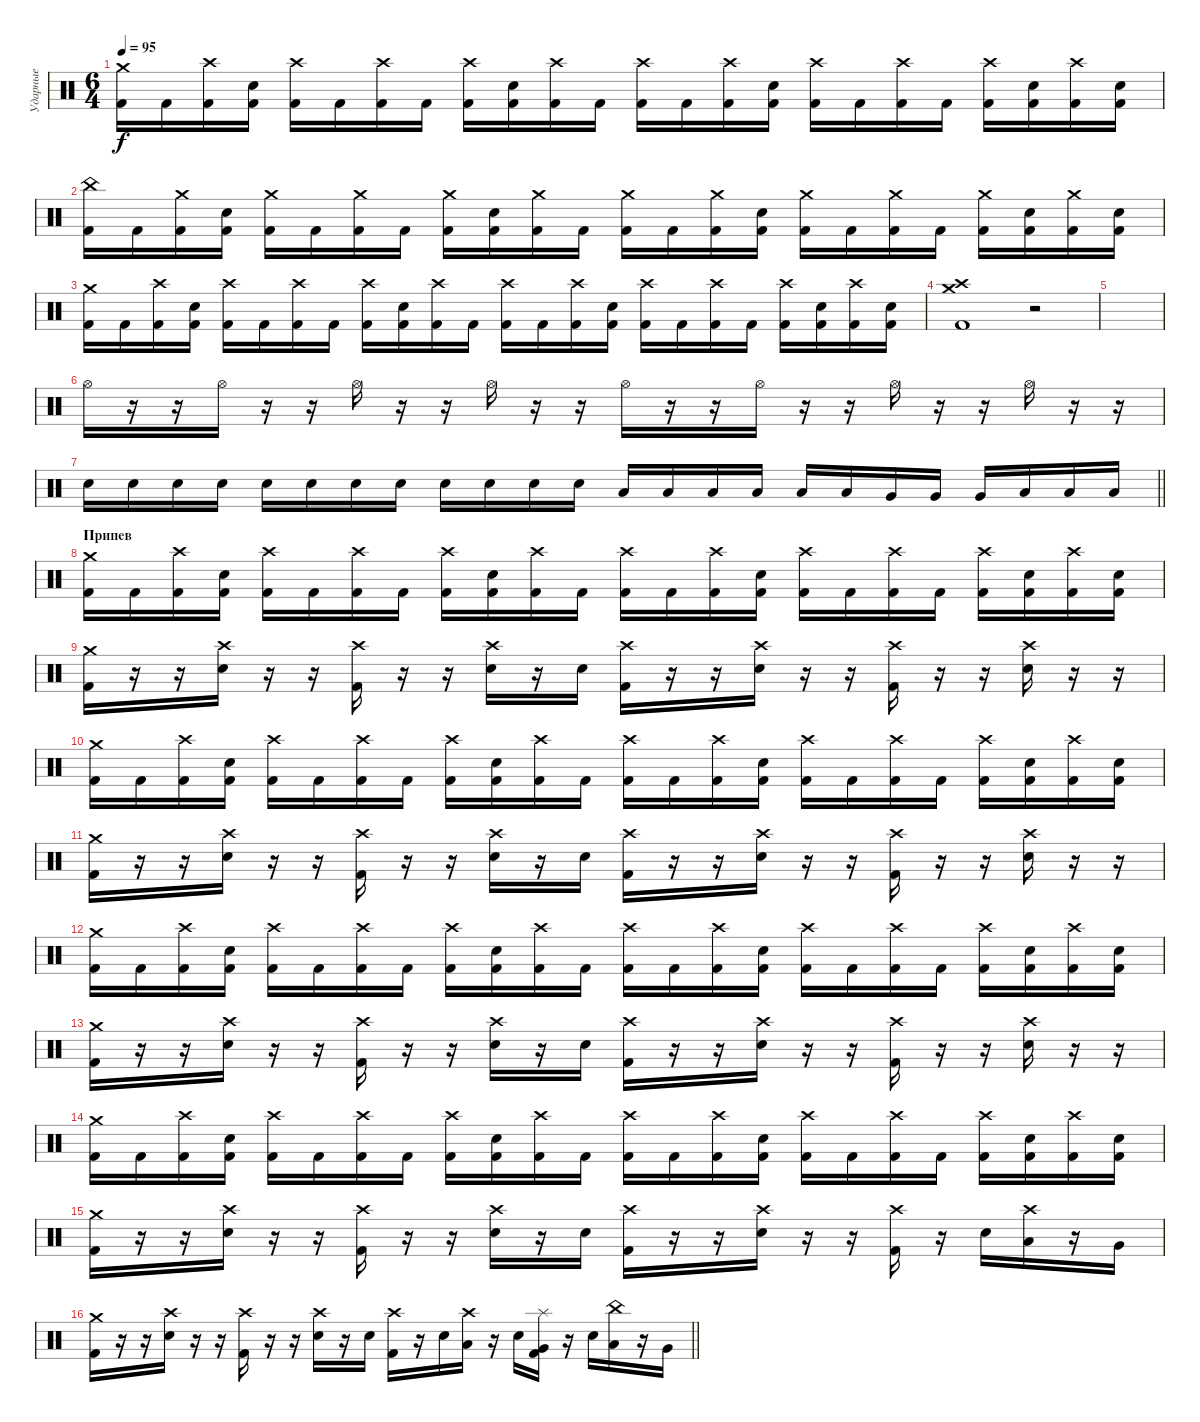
\track ("Ударные" "Ударные") {instrument percussion}
\staff {score}
\articulation defaults
\ts (6 4)
\tempo 95
\clef neutral
\ks c
("Crash medium (hit)" "Kick (hit) 2").16{dy f} "Kick (hit) 2".16 ("Crash high (hit)" "Kick (hit) 2").16 ("Electric Snare (hit)" "Kick (hit) 2").16 ("Crash high (hit)" "Kick (hit) 2").16 "Kick (hit) 2".16 ("Crash high (hit)" "Kick (hit) 2").16 "Kick (hit) 2".16 ("Crash high (hit)" "Kick (hit) 2").16 ("Electric Snare (hit)" "Kick (hit) 2").16 ("Crash high (hit)" "Kick (hit) 2").16 "Kick (hit) 2".16 ("Crash high (hit)" "Kick (hit) 2").16 "Kick (hit) 2".16 ("Crash high (hit)" "Kick (hit) 2").16 ("Electric Snare (hit)" "Kick (hit) 2").16 ("Crash high (hit)" "Kick (hit) 2").16 "Kick (hit) 2".16 ("Crash high (hit)" "Kick (hit) 2").16 "Kick (hit) 2".16 ("Crash high (hit)" "Kick (hit) 2").16 ("Electric Snare (hit)" "Kick (hit) 2").16 ("Crash high (hit)" "Kick (hit) 2").16 ("Electric Snare (hit)" "Kick (hit) 2").16 |
("China (hit)" "Kick (hit) 2").16 "Kick (hit) 2".16 ("Crash medium (hit)" "Kick (hit) 2").16 ("Electric Snare (hit)" "Kick (hit) 2").16 ("Crash medium (hit)" "Kick (hit) 2").16 "Kick (hit) 2".16 ("Crash medium (hit)" "Kick (hit) 2").16 "Kick (hit) 2".16 ("Crash medium (hit)" "Kick (hit) 2").16 ("Electric Snare (hit)" "Kick (hit) 2").16 ("Crash medium (hit)" "Kick (hit) 2").16 "Kick (hit) 2".16 ("Crash medium (hit)" "Kick (hit) 2").16 "Kick (hit) 2".16 ("Crash medium (hit)" "Kick (hit) 2").16 ("Electric Snare (hit)" "Kick (hit) 2").16 ("Crash medium (hit)" "Kick (hit) 2").16 "Kick (hit) 2".16 ("Crash medium (hit)" "Kick (hit) 2").16 "Kick (hit) 2".16 ("Crash medium (hit)" "Kick (hit) 2").16 ("Electric Snare (hit)" "Kick (hit) 2").16 ("Crash medium (hit)" "Kick (hit) 2").16 ("Electric Snare (hit)" "Kick (hit) 2").16 |
("Crash medium (hit)" "Kick (hit) 2").16 "Kick (hit) 2".16 ("Crash high (hit)" "Kick (hit) 2").16 ("Electric Snare (hit)" "Kick (hit) 2").16 ("Crash high (hit)" "Kick (hit) 2").16 "Kick (hit) 2".16 ("Crash high (hit)" "Kick (hit) 2").16 "Kick (hit) 2".16 ("Crash high (hit)" "Kick (hit) 2").16 ("Electric Snare (hit)" "Kick (hit) 2").16 ("Crash high (hit)" "Kick (hit) 2").16 "Kick (hit) 2".16 ("Crash high (hit)" "Kick (hit) 2").16 "Kick (hit) 2".16 ("Crash high (hit)" "Kick (hit) 2").16 ("Electric Snare (hit)" "Kick (hit) 2").16 ("Crash high (hit)" "Kick (hit) 2").16 "Kick (hit) 2".16 ("Crash high (hit)" "Kick (hit) 2").16 "Kick (hit) 2".16 ("Crash high (hit)" "Kick (hit) 2").16 ("Electric Snare (hit)" "Kick (hit) 2").16 ("Crash high (hit)" "Kick (hit) 2").16 ("Electric Snare (hit)" "Kick (hit) 2").16 |
("Crash high (hit)" "Crash medium (hit)" "Kick (hit) 2").1 r.2 |
|
"Hi-Hat (open)".16 r.16 r.16 "Hi-Hat (open)".16 r.16 r.16 "Hi-Hat (open)".16 r.16 r.16 "Hi-Hat (open)".16 r.16 r.16 "Hi-Hat (open)".16 r.16 r.16 "Hi-Hat (open)".16 r.16 r.16 "Hi-Hat (open)".16 r.16 r.16 "Hi-Hat (open)".16 r.16 r.16 |
\barLineRight lightlight "Electric Snare (hit)".16 "Electric Snare (hit)".16 "Electric Snare (hit)".16 "Electric Snare (hit)".16 "Electric Snare (hit)".16 "Electric Snare (hit)".16 "Electric Snare (hit)".16 "Electric Snare (hit)".16 "Electric Snare (hit)".16 "Electric Snare (hit)".16 "Electric Snare (hit)".16 "Electric Snare (hit)".16 "Low Tom (hit)".16 "Low Tom (hit)".16 "Low Tom (hit)".16 "Low Tom (hit)".16 "Low Tom (hit)".16 "Low Tom (hit)".16 "Very Low Tom (hit)".16 "Very Low Tom (hit)".16 "Very Low Tom (hit)".16 "Low Floor Tom (hit)".16 "Low Floor Tom (hit)".16 "Low Floor Tom (hit)".16
|
\section ("" "Припев")
("Crash medium (hit)" "Kick (hit) 2").16 "Kick (hit) 2".16 ("Crash high (hit)" "Kick (hit) 2").16 ("Electric Snare (hit)" "Kick (hit) 2").16 ("Crash high (hit)" "Kick (hit) 2").16 "Kick (hit) 2".16 ("Crash high (hit)" "Kick (hit) 2").16 "Kick (hit) 2".16 ("Crash high (hit)" "Kick (hit) 2").16 ("Electric Snare (hit)" "Kick (hit) 2").16 ("Crash high (hit)" "Kick (hit) 2").16 "Kick (hit) 2".16 ("Crash high (hit)" "Kick (hit) 2").16 "Kick (hit) 2".16 ("Crash high (hit)" "Kick (hit) 2").16 ("Electric Snare (hit)" "Kick (hit) 2").16 ("Crash high (hit)" "Kick (hit) 2").16 "Kick (hit) 2".16 ("Crash high (hit)" "Kick (hit) 2").16 "Kick (hit) 2".16 ("Crash high (hit)" "Kick (hit) 2").16 ("Electric Snare (hit)" "Kick (hit) 2").16 ("Crash high (hit)" "Kick (hit) 2").16 ("Electric Snare (hit)" "Kick (hit) 2").16 |
("Crash medium (hit)" "Kick (hit) 2").16 r.16 r.16 ("Crash high (hit)" "Electric Snare (hit)").16 r.16 r.16 ("Crash high (hit)" "Kick (hit) 2").16 r.16 r.16 ("Crash high (hit)" "Electric Snare (hit)").16 r.16 "Electric Snare (hit)".16 ("Crash high (hit)" "Kick (hit) 2").16 r.16 r.16 ("Crash high (hit)" "Electric Snare (hit)").16 r.16 r.16 ("Crash high (hit)" "Kick (hit) 2").16 r.16 r.16 ("Crash high (hit)" "Electric Snare (hit)").16 r.16 r.16 |
("Crash medium (hit)" "Kick (hit) 2").16 "Kick (hit) 2".16 ("Crash high (hit)" "Kick (hit) 2").16 ("Electric Snare (hit)" "Kick (hit) 2").16 ("Crash high (hit)" "Kick (hit) 2").16 "Kick (hit) 2".16 ("Crash high (hit)" "Kick (hit) 2").16 "Kick (hit) 2".16 ("Crash high (hit)" "Kick (hit) 2").16 ("Electric Snare (hit)" "Kick (hit) 2").16 ("Crash high (hit)" "Kick (hit) 2").16 "Kick (hit) 2".16 ("Crash high (hit)" "Kick (hit) 2").16 "Kick (hit) 2".16 ("Crash high (hit)" "Kick (hit) 2").16 ("Electric Snare (hit)" "Kick (hit) 2").16 ("Crash high (hit)" "Kick (hit) 2").16 "Kick (hit) 2".16 ("Crash high (hit)" "Kick (hit) 2").16 "Kick (hit) 2".16 ("Crash high (hit)" "Kick (hit) 2").16 ("Electric Snare (hit)" "Kick (hit) 2").16 ("Crash high (hit)" "Kick (hit) 2").16 ("Electric Snare (hit)" "Kick (hit) 2").16 |
("Crash medium (hit)" "Kick (hit) 2").16 r.16 r.16 ("Crash high (hit)" "Electric Snare (hit)").16 r.16 r.16 ("Crash high (hit)" "Kick (hit) 2").16 r.16 r.16 ("Crash high (hit)" "Electric Snare (hit)").16 r.16 "Electric Snare (hit)".16 ("Crash high (hit)" "Kick (hit) 2").16 r.16 r.16 ("Crash high (hit)" "Electric Snare (hit)").16 r.16 r.16 ("Crash high (hit)" "Kick (hit) 2").16 r.16 r.16 ("Crash high (hit)" "Electric Snare (hit)").16 r.16 r.16 |
("Crash medium (hit)" "Kick (hit) 2").16 "Kick (hit) 2".16 ("Crash high (hit)" "Kick (hit) 2").16 ("Electric Snare (hit)" "Kick (hit) 2").16 ("Crash high (hit)" "Kick (hit) 2").16 "Kick (hit) 2".16 ("Crash high (hit)" "Kick (hit) 2").16 "Kick (hit) 2".16 ("Crash high (hit)" "Kick (hit) 2").16 ("Electric Snare (hit)" "Kick (hit) 2").16 ("Crash high (hit)" "Kick (hit) 2").16 "Kick (hit) 2".16 ("Crash high (hit)" "Kick (hit) 2").16 "Kick (hit) 2".16 ("Crash high (hit)" "Kick (hit) 2").16 ("Electric Snare (hit)" "Kick (hit) 2").16 ("Crash high (hit)" "Kick (hit) 2").16 "Kick (hit) 2".16 ("Crash high (hit)" "Kick (hit) 2").16 "Kick (hit) 2".16 ("Crash high (hit)" "Kick (hit) 2").16 ("Electric Snare (hit)" "Kick (hit) 2").16 ("Crash high (hit)" "Kick (hit) 2").16 ("Electric Snare (hit)" "Kick (hit) 2").16 |
("Crash medium (hit)" "Kick (hit) 2").16 r.16 r.16 ("Crash high (hit)" "Electric Snare (hit)").16 r.16 r.16 ("Crash high (hit)" "Kick (hit) 2").16 r.16 r.16 ("Crash high (hit)" "Electric Snare (hit)").16 r.16 "Electric Snare (hit)".16 ("Crash high (hit)" "Kick (hit) 2").16 r.16 r.16 ("Crash high (hit)" "Electric Snare (hit)").16 r.16 r.16 ("Crash high (hit)" "Kick (hit) 2").16 r.16 r.16 ("Crash high (hit)" "Electric Snare (hit)").16 r.16 r.16 |
("Crash medium (hit)" "Kick (hit) 2").16 "Kick (hit) 2".16 ("Crash high (hit)" "Kick (hit) 2").16 ("Electric Snare (hit)" "Kick (hit) 2").16 ("Crash high (hit)" "Kick (hit) 2").16 "Kick (hit) 2".16 ("Crash high (hit)" "Kick (hit) 2").16 "Kick (hit) 2".16 ("Crash high (hit)" "Kick (hit) 2").16 ("Electric Snare (hit)" "Kick (hit) 2").16 ("Crash high (hit)" "Kick (hit) 2").16 "Kick (hit) 2".16 ("Crash high (hit)" "Kick (hit) 2").16 "Kick (hit) 2".16 ("Crash high (hit)" "Kick (hit) 2").16 ("Electric Snare (hit)" "Kick (hit) 2").16 ("Crash high (hit)" "Kick (hit) 2").16 "Kick (hit) 2".16 ("Crash high (hit)" "Kick (hit) 2").16 "Kick (hit) 2".16 ("Crash high (hit)" "Kick (hit) 2").16 ("Electric Snare (hit)" "Kick (hit) 2").16 ("Crash high (hit)" "Kick (hit) 2").16 ("Electric Snare (hit)" "Kick (hit) 2").16 |
("Crash medium (hit)" "Kick (hit) 2").16 r.16 r.16 ("Crash high (hit)" "Electric Snare (hit)").16 r.16 r.16 ("Crash high (hit)" "Kick (hit) 2").16 r.16 r.16 ("Crash high (hit)" "Electric Snare (hit)").16 r.16 "Electric Snare (hit)".16 ("Crash high (hit)" "Kick (hit) 2").16 r.16 r.16 ("Crash high (hit)" "Electric Snare (hit)").16 r.16 r.16 ("Crash high (hit)" "Kick (hit) 2").16 r.16 "Electric Snare (hit)".16 ("Crash high (hit)" "Low Floor Tom (hit)").16 r.16 "Very Low Tom (hit)".16 |
\barLineRight lightlight
("Crash medium (hit)" "Kick (hit) 2").16 r.16 r.16 ("Crash high (hit)" "Electric Snare (hit)").16 r.16 r.16 ("Crash high (hit)" "Kick (hit) 2").16 r.16 r.16 ("Crash high (hit)" "Electric Snare (hit)").16 r.16 "Electric Snare (hit)".16 ("Crash high (hit)" "Kick (hit) 2").16 r.16 "Electric Snare (hit)".16 ("Crash high (hit)" "Low Floor Tom (hit)").16 r.16 "Electric Snare (hit)".16 ("Splash (hit)" "Very Low Tom (hit)" "Kick (hit) 2").16 r.16 "Electric Snare (hit)".16 ("China (hit)" "Low Floor Tom (hit)").16 r.16 "Very Low Tom (hit)".16
